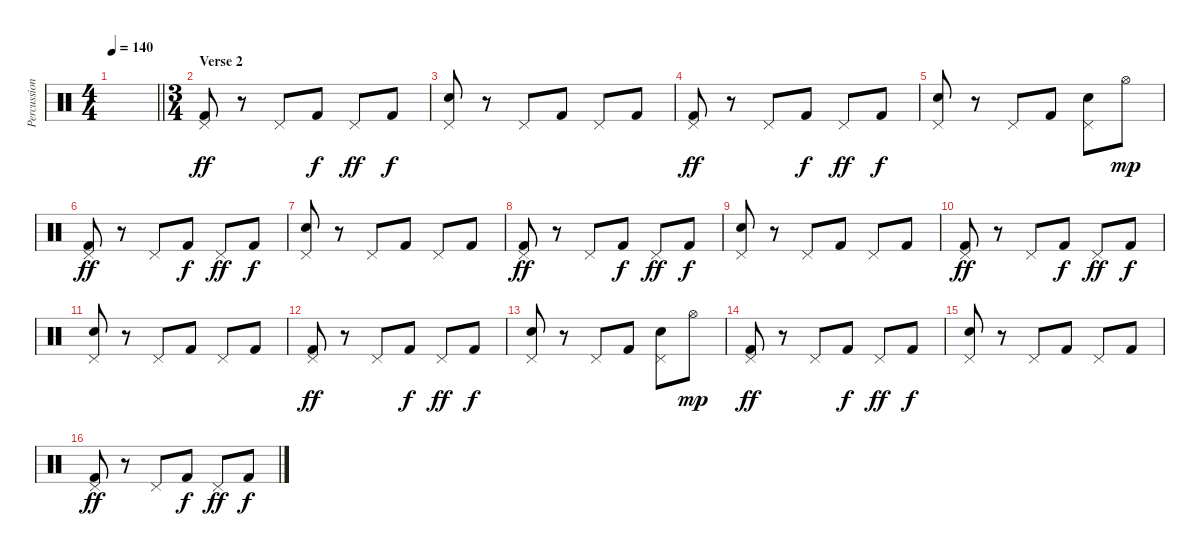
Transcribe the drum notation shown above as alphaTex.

\track ("Percussion" "Percussion") {instrument percussion}
\staff {score}
\articulation defaults
\ts (4 4)
\tempo 140
\clef neutral
\barLineRight lightlight
\ks c
|
\ts (3 4)
\section ("" "Verse 2")
("Pedal Hi-Hat (hit)" "Kick (hit) 2").8{dy ff} r.8 "Pedal Hi-Hat (hit)".8 "Kick (hit) 2".8{dy f} "Pedal Hi-Hat (hit)".8{dy ff} "Kick (hit) 2".8{dy f} |
("Pedal Hi-Hat (hit)" "Electric Snare (hit)").8 r.8 "Pedal Hi-Hat (hit)".8 "Kick (hit) 2".8 "Pedal Hi-Hat (hit)".8 "Kick (hit) 2".8 |
("Pedal Hi-Hat (hit)" "Kick (hit) 2").8{dy ff} r.8 "Pedal Hi-Hat (hit)".8 "Kick (hit) 2".8{dy f} "Pedal Hi-Hat (hit)".8{dy ff} "Kick (hit) 2".8{dy f} |
("Pedal Hi-Hat (hit)" "Electric Snare (hit)").8 r.8 "Pedal Hi-Hat (hit)".8 "Kick (hit) 2".8 ("Pedal Hi-Hat (hit)" "Electric Snare (hit)").8 "Hi-Hat (open)".8{dy mp} |
("Pedal Hi-Hat (hit)" "Kick (hit) 2").8{dy ff} r.8 "Pedal Hi-Hat (hit)".8 "Kick (hit) 2".8{dy f} "Pedal Hi-Hat (hit)".8{dy ff} "Kick (hit) 2".8{dy f} |
("Pedal Hi-Hat (hit)" "Electric Snare (hit)").8 r.8 "Pedal Hi-Hat (hit)".8 "Kick (hit) 2".8 "Pedal Hi-Hat (hit)".8 "Kick (hit) 2".8 |
("Pedal Hi-Hat (hit)" "Kick (hit) 2").8{dy ff} r.8 "Pedal Hi-Hat (hit)".8 "Kick (hit) 2".8{dy f} "Pedal Hi-Hat (hit)".8{dy ff} "Kick (hit) 2".8{dy f} |
("Pedal Hi-Hat (hit)" "Electric Snare (hit)").8 r.8 "Pedal Hi-Hat (hit)".8 "Kick (hit) 2".8 "Pedal Hi-Hat (hit)".8 "Kick (hit) 2".8 |
("Pedal Hi-Hat (hit)" "Kick (hit) 2").8{dy ff} r.8 "Pedal Hi-Hat (hit)".8 "Kick (hit) 2".8{dy f} "Pedal Hi-Hat (hit)".8{dy ff} "Kick (hit) 2".8{dy f} |
("Pedal Hi-Hat (hit)" "Electric Snare (hit)").8 r.8 "Pedal Hi-Hat (hit)".8 "Kick (hit) 2".8 "Pedal Hi-Hat (hit)".8 "Kick (hit) 2".8 |
("Pedal Hi-Hat (hit)" "Kick (hit) 2").8{dy ff} r.8 "Pedal Hi-Hat (hit)".8 "Kick (hit) 2".8{dy f} "Pedal Hi-Hat (hit)".8{dy ff} "Kick (hit) 2".8{dy f} |
("Pedal Hi-Hat (hit)" "Electric Snare (hit)").8 r.8 "Pedal Hi-Hat (hit)".8 "Kick (hit) 2".8 ("Pedal Hi-Hat (hit)" "Electric Snare (hit)").8 "Hi-Hat (open)".8{dy mp} |
("Pedal Hi-Hat (hit)" "Kick (hit) 2").8{dy ff} r.8 "Pedal Hi-Hat (hit)".8 "Kick (hit) 2".8{dy f} "Pedal Hi-Hat (hit)".8{dy ff} "Kick (hit) 2".8{dy f} |
("Pedal Hi-Hat (hit)" "Electric Snare (hit)").8 r.8 "Pedal Hi-Hat (hit)".8 "Kick (hit) 2".8 "Pedal Hi-Hat (hit)".8 "Kick (hit) 2".8 |
("Pedal Hi-Hat (hit)" "Kick (hit) 2").8{dy ff} r.8 "Pedal Hi-Hat (hit)".8 "Kick (hit) 2".8{dy f} "Pedal Hi-Hat (hit)".8{dy ff} "Kick (hit) 2".8{dy f}
